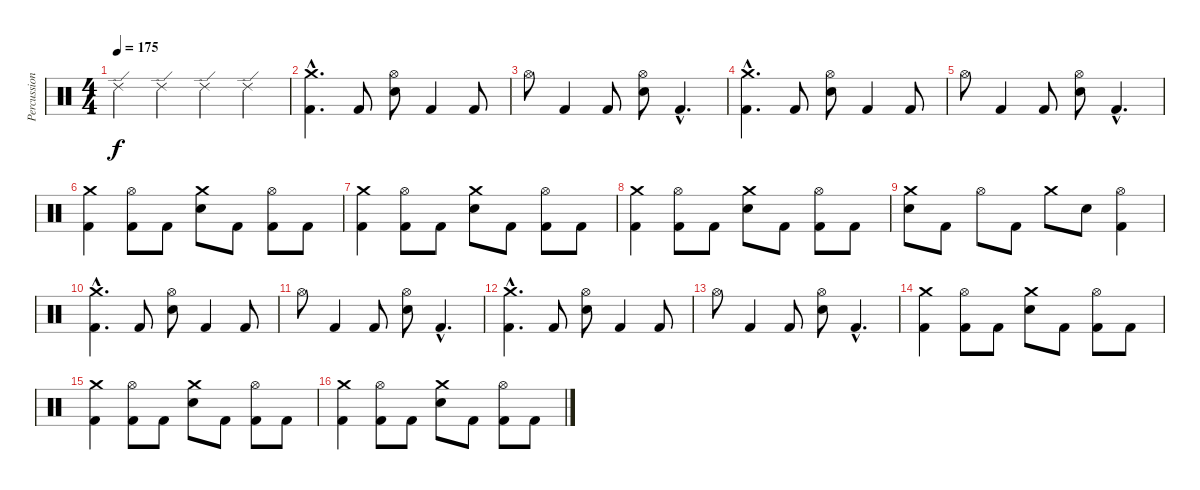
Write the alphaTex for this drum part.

\track ("Percussion" "Percussion") {instrument percussion}
\staff {score}
\articulation defaults
\ts (4 4)
\tempo 175
\clef neutral
\ks c "Ride (edge) 2".4{dy f} "Ride (edge) 2".4 "Ride (edge) 2".4 "Ride (edge) 2".4
|
("Crash medium (hit)"{hac} "Kick (hit) 2"{hac}).4{d} "Kick (hit) 2".8 ("Hi-Hat (open)" "Electric Snare (hit)").8 "Kick (hit) 2".4 "Kick (hit) 2".8 |
"Hi-Hat (open)".8 "Kick (hit) 2".4 "Kick (hit) 2".8 ("Hi-Hat (open)" "Electric Snare (hit)").8 "Kick (hit) 2"{hac}.4{d} |
("Crash medium (hit)"{hac} "Kick (hit) 2"{hac}).4{d} "Kick (hit) 2".8 ("Hi-Hat (open)" "Electric Snare (hit)").8 "Kick (hit) 2".4 "Kick (hit) 2".8 |
"Hi-Hat (open)".8 "Kick (hit) 2".4 "Kick (hit) 2".8 ("Hi-Hat (open)" "Electric Snare (hit)").8 "Kick (hit) 2"{hac}.4{d} |
("Crash medium (hit)" "Kick (hit) 2").4 ("Hi-Hat (open)" "Kick (hit) 2").8 "Kick (hit) 2".8 ("Crash medium (hit)" "Electric Snare (hit)").8 "Kick (hit) 2".8 ("Hi-Hat (open)" "Kick (hit) 2").8 "Kick (hit) 2".8 |
("Crash medium (hit)" "Kick (hit) 2").4 ("Hi-Hat (open)" "Kick (hit) 2").8 "Kick (hit) 2".8 ("Crash medium (hit)" "Electric Snare (hit)").8 "Kick (hit) 2".8 ("Hi-Hat (open)" "Kick (hit) 2").8 "Kick (hit) 2".8 |
("Crash medium (hit)" "Kick (hit) 2").4 ("Hi-Hat (open)" "Kick (hit) 2").8 "Kick (hit) 2".8 ("Crash medium (hit)" "Electric Snare (hit)").8 "Kick (hit) 2".8 ("Hi-Hat (open)" "Kick (hit) 2").8 "Kick (hit) 2".8 |
("Crash medium (hit)" "Electric Snare (hit)").8 "Kick (hit) 2".8 "Hi-Hat (open)".8 "Kick (hit) 2".8 "Crash medium (hit)".8 "Electric Snare (hit)".8 ("Hi-Hat (open)" "Kick (hit) 2").4 |
("Crash medium (hit)"{hac} "Kick (hit) 2"{hac}).4{d} "Kick (hit) 2".8 ("Hi-Hat (open)" "Electric Snare (hit)").8 "Kick (hit) 2".4 "Kick (hit) 2".8 |
"Hi-Hat (open)".8 "Kick (hit) 2".4 "Kick (hit) 2".8 ("Hi-Hat (open)" "Electric Snare (hit)").8 "Kick (hit) 2"{hac}.4{d} |
("Crash medium (hit)"{hac} "Kick (hit) 2"{hac}).4{d} "Kick (hit) 2".8 ("Hi-Hat (open)" "Electric Snare (hit)").8 "Kick (hit) 2".4 "Kick (hit) 2".8 |
"Hi-Hat (open)".8 "Kick (hit) 2".4 "Kick (hit) 2".8 ("Hi-Hat (open)" "Electric Snare (hit)").8 "Kick (hit) 2"{hac}.4{d} |
("Crash medium (hit)" "Kick (hit) 2").4 ("Hi-Hat (open)" "Kick (hit) 2").8 "Kick (hit) 2".8 ("Crash medium (hit)" "Electric Snare (hit)").8 "Kick (hit) 2".8 ("Hi-Hat (open)" "Kick (hit) 2").8 "Kick (hit) 2".8 |
("Crash medium (hit)" "Kick (hit) 2").4 ("Hi-Hat (open)" "Kick (hit) 2").8 "Kick (hit) 2".8 ("Crash medium (hit)" "Electric Snare (hit)").8 "Kick (hit) 2".8 ("Hi-Hat (open)" "Kick (hit) 2").8 "Kick (hit) 2".8 |
("Crash medium (hit)" "Kick (hit) 2").4 ("Hi-Hat (open)" "Kick (hit) 2").8 "Kick (hit) 2".8 ("Crash medium (hit)" "Electric Snare (hit)").8 "Kick (hit) 2".8 ("Hi-Hat (open)" "Kick (hit) 2").8 "Kick (hit) 2".8
